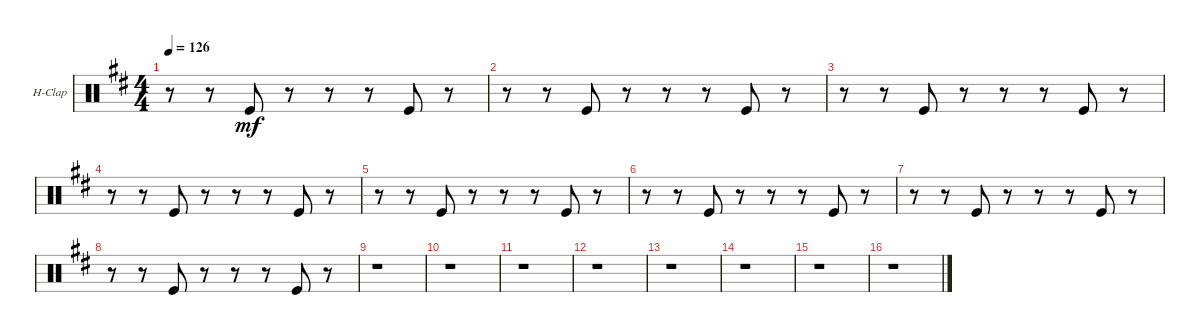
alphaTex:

\bracketExtendMode groupsimilarinstruments
\firstSystemTrackNameOrientation horizontal
\otherSystemsTrackNameOrientation horizontal
\track ("Hand Clap" "H-Clap") {instrument percussion}
\staff {score}
\articulation defaults
\ts (4 4)
\tempo 126
\clef neutral
\scale
0.333333
\ks d
r.8{dy mf} r.8 "Kick (hit)".8 r.8 r.8 r.8 "Kick (hit)".8 r.8 |
\scale
0.333333 r.8 r.8 "Kick (hit)".8 r.8 r.8 r.8 "Kick (hit)".8 r.8 |
\scale
0.333333 r.8 r.8 "Kick (hit)".8 r.8 r.8 r.8 "Kick (hit)".8 r.8 |
\scale
0.333333 r.8 r.8 "Kick (hit)".8 r.8 r.8 r.8 "Kick (hit)".8 r.8 |
\scale
0.333333 r.8 r.8 "Kick (hit)".8 r.8 r.8 r.8 "Kick (hit)".8 r.8 |
\scale
0.333333 r.8 r.8 "Kick (hit)".8 r.8 r.8 r.8 "Kick (hit)".8 r.8 |
\scale
0.333333 r.8 r.8 "Kick (hit)".8 r.8 r.8 r.8 "Kick (hit)".8 r.8 |
\scale
0.333333 r.8 r.8 "Kick (hit)".8 r.8 r.8 r.8 "Kick (hit)".8 r.8 |
\scale
0.333333 r.1 |
\scale
0.333333 r.1 |
\scale
0.333333 r.1 |
\scale
0.333333 r.1 |
\scale
0.333333 r.1 |
\scale
0.333333 r.1 |
\scale
0.333333 r.1 |
\scale
0.333333 r.1
